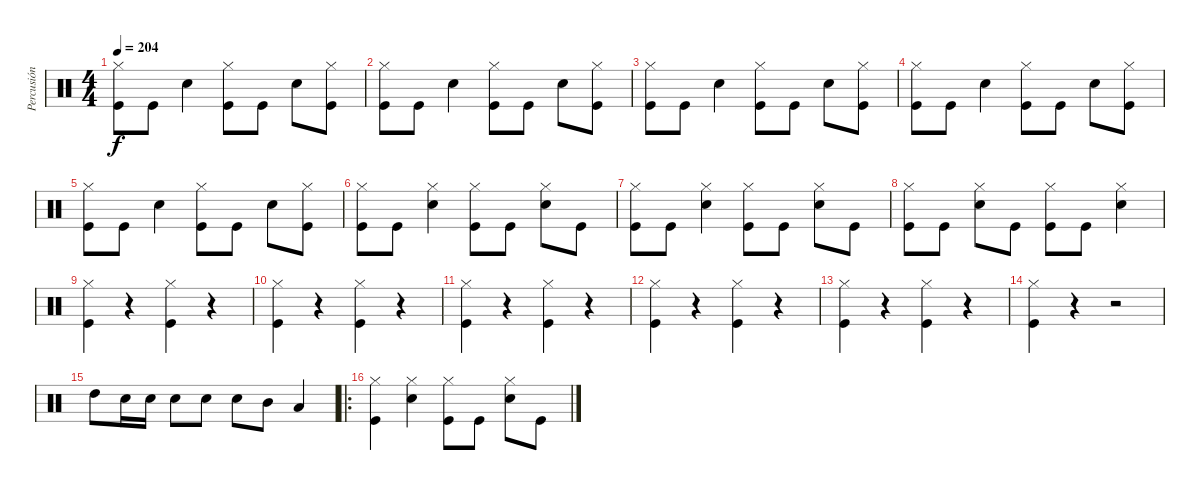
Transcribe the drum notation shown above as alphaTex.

\track ("Percusión" "Percusión") {instrument percussion}
\staff {score}
\articulation defaults
\ts (4 4)
\tempo 204
\clef neutral
\ks c
("Hi-Hat (closed)" "Kick (hit)").8{dy f} "Kick (hit)".8 "Snare (hit) 2".4 ("Hi-Hat (closed)" "Kick (hit)").8 "Kick (hit)".8 "Snare (hit) 2".8 ("Hi-Hat (closed)" "Kick (hit)").8 |
("Hi-Hat (closed)" "Kick (hit)").8 "Kick (hit)".8 "Snare (hit) 2".4 ("Hi-Hat (closed)" "Kick (hit)").8 "Kick (hit)".8 "Snare (hit) 2".8 ("Hi-Hat (closed)" "Kick (hit)").8 |
("Hi-Hat (closed)" "Kick (hit)").8 "Kick (hit)".8 "Snare (hit) 2".4 ("Hi-Hat (closed)" "Kick (hit)").8 "Kick (hit)".8 "Snare (hit) 2".8 ("Hi-Hat (closed)" "Kick (hit)").8 |
("Hi-Hat (closed)" "Kick (hit)").8 "Kick (hit)".8 "Snare (hit) 2".4 ("Hi-Hat (closed)" "Kick (hit)").8 "Kick (hit)".8 "Snare (hit) 2".8 ("Hi-Hat (closed)" "Kick (hit)").8 |
("Hi-Hat (closed)" "Kick (hit)").8 "Kick (hit)".8 "Snare (hit) 2".4 ("Hi-Hat (closed)" "Kick (hit)").8 "Kick (hit)".8 "Snare (hit) 2".8 ("Hi-Hat (closed)" "Kick (hit)").8 |
("Hi-Hat (closed)" "Kick (hit)").8 "Kick (hit)".8 ("Hi-Hat (closed)" "Snare (hit) 2").4 ("Hi-Hat (closed)" "Kick (hit)").8 "Kick (hit)".8 ("Hi-Hat (closed)" "Snare (hit) 2").8 "Kick (hit)".8 |
("Hi-Hat (closed)" "Kick (hit)").8 "Kick (hit)".8 ("Hi-Hat (closed)" "Snare (hit) 2").4 ("Hi-Hat (closed)" "Kick (hit)").8 "Kick (hit)".8 ("Hi-Hat (closed)" "Snare (hit) 2").8 "Kick (hit)".8 |
("Hi-Hat (closed)" "Kick (hit)").8 "Kick (hit)".8 ("Hi-Hat (closed)" "Snare (hit) 2").8 "Kick (hit)".8 ("Hi-Hat (closed)" "Kick (hit)").8 "Kick (hit)".8 ("Hi-Hat (closed)" "Snare (hit) 2").4 |
("Hi-Hat (closed)" "Kick (hit)").4 r.4 ("Hi-Hat (closed)" "Kick (hit)").4 r.4 |
("Hi-Hat (closed)" "Kick (hit)").4 r.4 ("Hi-Hat (closed)" "Kick (hit)").4 r.4 |
("Hi-Hat (closed)" "Kick (hit)").4 r.4 ("Hi-Hat (closed)" "Kick (hit)").4 r.4 |
("Hi-Hat (closed)" "Kick (hit)").4 r.4 ("Hi-Hat (closed)" "Kick (hit)").4 r.4 |
("Hi-Hat (closed)" "Kick (hit)").4 r.4 ("Hi-Hat (closed)" "Kick (hit)").4 r.4 |
("Hi-Hat (closed)" "Kick (hit)").4 r.4 r.2 |
"High Tom (hit)".8 "Snare (hit) 2".16 "Snare (hit) 2".16 "Snare (hit) 2".8 "Snare (hit) 2".8 "Snare (hit) 2".8 "Mid Tom (hit)".8 "Low Tom (hit)".4 |
\ro
("Hi-Hat (closed)" "Kick (hit)").4 ("Hi-Hat (closed)" "Snare (hit) 2").4 ("Hi-Hat (closed)" "Kick (hit)").8 "Kick (hit)".8 ("Hi-Hat (closed)" "Snare (hit) 2").8 "Kick (hit)".8
